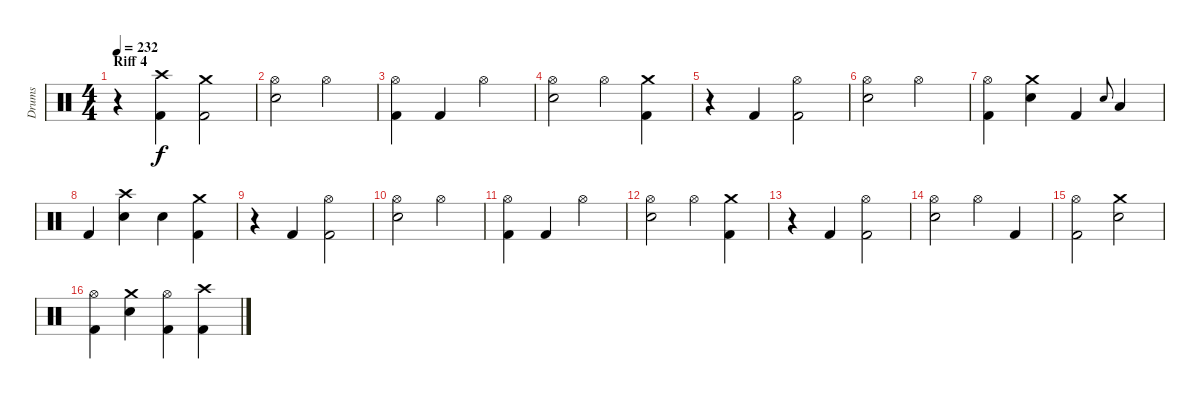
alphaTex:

\track ("Drums" "Drums") {instrument percussion}
\staff {score}
\articulation defaults
\ts (4 4)
\section ("" "Riff 4")
\tempo 232
\clef neutral
\ks c
r.4{dy f} ("Crash high (hit)" "Kick (hit) 2").4 ("Crash medium (hit)" "Kick (hit) 2").2 |
("Hi-Hat (open)" "Electric Snare (hit)").2 "Hi-Hat (open)".2 |
("Hi-Hat (open)" "Kick (hit) 2").4 "Kick (hit) 2".4 "Hi-Hat (open)".2 |
("Hi-Hat (open)" "Electric Snare (hit)").2 "Hi-Hat (open)".4 ("Crash medium (hit)" "Kick (hit) 2").4 |
r.4 "Kick (hit) 2".4 ("Kick (hit) 2" "Hi-Hat (open)").2 |
("Hi-Hat (open)" "Electric Snare (hit)").2 "Hi-Hat (open)".2 |
("Kick (hit) 2" "Hi-Hat (open)").4 ("Electric Snare (hit)" "Crash medium (hit)").4 "Kick (hit) 2".4 "Electric Snare (hit)".8{gr onbeat} "Low Floor Tom (hit)".4 |
"Kick (hit) 2".4 ("Crash high (hit)" "Electric Snare (hit)").4 "Electric Snare (hit)".4 ("Crash medium (hit)" "Kick (hit) 2").4 |
r.4 "Kick (hit) 2".4 ("Kick (hit) 2" "Hi-Hat (open)").2 |
("Hi-Hat (open)" "Electric Snare (hit)").2 "Hi-Hat (open)".2 |
("Hi-Hat (open)" "Kick (hit) 2").4 "Kick (hit) 2".4 "Hi-Hat (open)".2 |
("Hi-Hat (open)" "Electric Snare (hit)").2 "Hi-Hat (open)".4 ("Crash medium (hit)" "Kick (hit) 2").4 |
r.4 "Kick (hit) 2".4 ("Kick (hit) 2" "Hi-Hat (open)").2 |
("Hi-Hat (open)" "Electric Snare (hit)").2 "Hi-Hat (open)".4 "Kick (hit) 2".4 |
("Hi-Hat (open)" "Kick (hit) 2").2 ("Electric Snare (hit)" "Crash medium (hit)").2 |
("Hi-Hat (open)" "Kick (hit) 2").4 ("Electric Snare (hit)" "Crash medium (hit)").4 ("Hi-Hat (open)" "Kick (hit) 2").4 ("Crash high (hit)" "Kick (hit) 2").4
